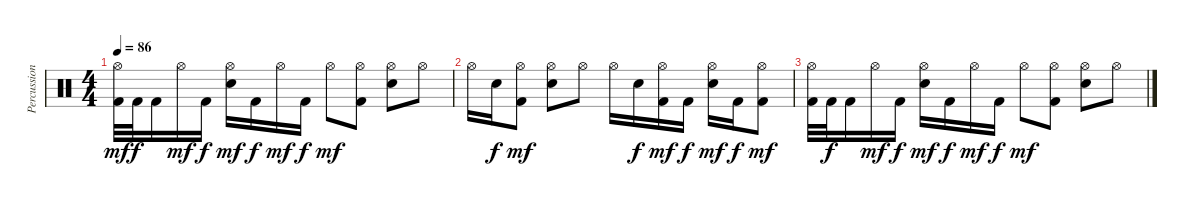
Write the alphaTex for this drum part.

\track ("Percussion" "Percussion") {instrument percussion}
\staff {score}
\articulation defaults
\ts (4 4)
\tempo 86
\clef neutral
\ks c
("Hi-Hat (open)" "Kick (hit) 2").32{dy mf} "Kick (hit) 2".32{dy f} "Kick (hit) 2".16 "Hi-Hat (open)".16{dy mf} "Kick (hit) 2".16{dy f} ("Hi-Hat (open)" "Electric Snare (hit)").16{dy mf} "Kick (hit) 2".16{dy f} "Hi-Hat (open)".16{dy mf} "Kick (hit) 2".16{dy f} "Hi-Hat (open)".8{dy mf} ("Hi-Hat (open)" "Kick (hit) 2").8 ("Hi-Hat (open)" "Electric Snare (hit)").8 "Hi-Hat (open)".8 |
"Hi-Hat (open)".16 "Electric Snare (hit)".16{dy f} ("Hi-Hat (open)" "Kick (hit) 2").8{dy mf} ("Hi-Hat (open)" "Electric Snare (hit)").8 "Hi-Hat (open)".8 "Hi-Hat (open)".16 "Electric Snare (hit)".16{dy f} ("Hi-Hat (open)" "Kick (hit) 2").16{dy mf} "Kick (hit) 2".16{dy f} ("Hi-Hat (open)" "Electric Snare (hit)").16{dy mf} "Kick (hit) 2".16{dy f} ("Hi-Hat (open)" "Kick (hit) 2").8{dy mf} |
("Hi-Hat (open)" "Kick (hit) 2").32 "Kick (hit) 2".32{dy f} "Kick (hit) 2".16 "Hi-Hat (open)".16{dy mf} "Kick (hit) 2".16{dy f} ("Hi-Hat (open)" "Electric Snare (hit)").16{dy mf} "Kick (hit) 2".16{dy f} "Hi-Hat (open)".16{dy mf} "Kick (hit) 2".16{dy f} "Hi-Hat (open)".8{dy mf} ("Hi-Hat (open)" "Kick (hit) 2").8 ("Hi-Hat (open)" "Electric Snare (hit)").8 "Hi-Hat (open)".8
